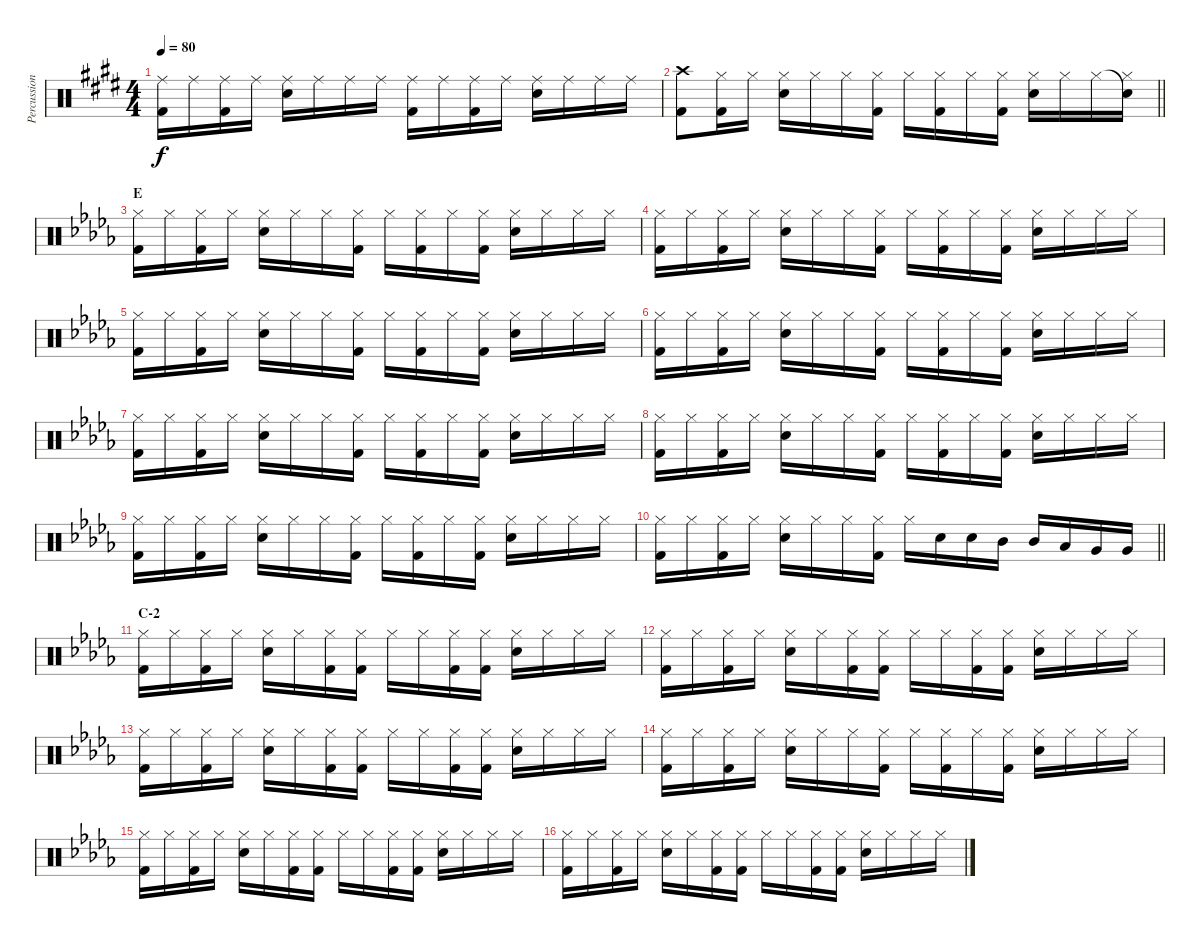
\track ("Percussion" "Percussion") {instrument percussion}
\staff {score}
\articulation defaults
\ts (4 4)
\tempo 80
\clef neutral
\ks e
("Ride (middle)" "Kick (hit) 2").16{dy f} "Ride (middle)".16 ("Ride (middle)" "Kick (hit) 2").16 "Ride (middle)".16 ("Ride (middle)" "Electric Snare (hit)").16 "Ride (middle)".16 "Ride (middle)".16 "Ride (middle)".16 ("Ride (middle)" "Kick (hit) 2").16 "Ride (middle)".16 ("Ride (middle)" "Kick (hit) 2").16 "Ride (middle)".16 ("Ride (middle)" "Electric Snare (hit)").16 "Ride (middle)".16 "Ride (middle)".16 "Ride (middle)".16 |
\barLineRight lightlight
("Crash high (hit)" "Kick (hit) 2").8 ("Hi-Hat (closed)" "Kick (hit) 2").16 "Hi-Hat (closed)".16 ("Hi-Hat (closed)" "Electric Snare (hit)").16 "Hi-Hat (closed)".16 "Hi-Hat (closed)".16 ("Hi-Hat (closed)" "Kick (hit) 2").16 "Hi-Hat (closed)".16 ("Hi-Hat (closed)" "Kick (hit) 2").16 "Hi-Hat (closed)".16 ("Hi-Hat (closed)" "Kick (hit) 2").16 ("Hi-Hat (closed)" "Electric Snare (hit)").16 "Hi-Hat (closed)".16 "Hi-Hat (closed)".16 ("Snare (hit)"{t} "Hi-Hat (closed)").16 |
\section ("" "E")
\ks db
("Hi-Hat (closed)" "Kick (hit) 2").16 "Hi-Hat (closed)".16 ("Hi-Hat (closed)" "Kick (hit) 2").16 "Hi-Hat (closed)".16 ("Hi-Hat (closed)" "Electric Snare (hit)").16 "Hi-Hat (closed)".16 "Hi-Hat (closed)".16 ("Hi-Hat (closed)" "Kick (hit) 2").16 "Hi-Hat (closed)".16 ("Hi-Hat (closed)" "Kick (hit) 2").16 "Hi-Hat (closed)".16 ("Hi-Hat (closed)" "Kick (hit) 2").16 ("Hi-Hat (closed)" "Electric Snare (hit)").16 "Hi-Hat (closed)".16 "Hi-Hat (closed)".16 "Hi-Hat (closed)".16 |
("Hi-Hat (closed)" "Kick (hit) 2").16 "Hi-Hat (closed)".16 ("Hi-Hat (closed)" "Kick (hit) 2").16 "Hi-Hat (closed)".16 ("Hi-Hat (closed)" "Electric Snare (hit)").16 "Hi-Hat (closed)".16 "Hi-Hat (closed)".16 ("Hi-Hat (closed)" "Kick (hit) 2").16 "Hi-Hat (closed)".16 ("Hi-Hat (closed)" "Kick (hit) 2").16 "Hi-Hat (closed)".16 ("Hi-Hat (closed)" "Kick (hit) 2").16 ("Hi-Hat (closed)" "Electric Snare (hit)").16 "Hi-Hat (closed)".16 "Hi-Hat (closed)".16 "Hi-Hat (closed)".16 |
("Hi-Hat (closed)" "Kick (hit) 2").16 "Hi-Hat (closed)".16 ("Hi-Hat (closed)" "Kick (hit) 2").16 "Hi-Hat (closed)".16 ("Hi-Hat (closed)" "Electric Snare (hit)").16 "Hi-Hat (closed)".16 "Hi-Hat (closed)".16 ("Hi-Hat (closed)" "Kick (hit) 2").16 "Hi-Hat (closed)".16 ("Hi-Hat (closed)" "Kick (hit) 2").16 "Hi-Hat (closed)".16 ("Hi-Hat (closed)" "Kick (hit) 2").16 ("Hi-Hat (closed)" "Electric Snare (hit)").16 "Hi-Hat (closed)".16 "Hi-Hat (closed)".16 "Hi-Hat (closed)".16 |
("Hi-Hat (closed)" "Kick (hit) 2").16 "Hi-Hat (closed)".16 ("Hi-Hat (closed)" "Kick (hit) 2").16 "Hi-Hat (closed)".16 ("Hi-Hat (closed)" "Electric Snare (hit)").16 "Hi-Hat (closed)".16 "Hi-Hat (closed)".16 ("Hi-Hat (closed)" "Kick (hit) 2").16 "Hi-Hat (closed)".16 ("Hi-Hat (closed)" "Kick (hit) 2").16 "Hi-Hat (closed)".16 ("Hi-Hat (closed)" "Kick (hit) 2").16 ("Hi-Hat (closed)" "Electric Snare (hit)").16 "Hi-Hat (closed)".16 "Hi-Hat (closed)".16 "Hi-Hat (closed)".16 |
("Hi-Hat (closed)" "Kick (hit) 2").16 "Hi-Hat (closed)".16 ("Hi-Hat (closed)" "Kick (hit) 2").16 "Hi-Hat (closed)".16 ("Hi-Hat (closed)" "Electric Snare (hit)").16 "Hi-Hat (closed)".16 "Hi-Hat (closed)".16 ("Hi-Hat (closed)" "Kick (hit) 2").16 "Hi-Hat (closed)".16 ("Hi-Hat (closed)" "Kick (hit) 2").16 "Hi-Hat (closed)".16 ("Hi-Hat (closed)" "Kick (hit) 2").16 ("Hi-Hat (closed)" "Electric Snare (hit)").16 "Hi-Hat (closed)".16 "Hi-Hat (closed)".16 "Hi-Hat (closed)".16 |
("Hi-Hat (closed)" "Kick (hit) 2").16 "Hi-Hat (closed)".16 ("Hi-Hat (closed)" "Kick (hit) 2").16 "Hi-Hat (closed)".16 ("Hi-Hat (closed)" "Electric Snare (hit)").16 "Hi-Hat (closed)".16 "Hi-Hat (closed)".16 ("Hi-Hat (closed)" "Kick (hit) 2").16 "Hi-Hat (closed)".16 ("Hi-Hat (closed)" "Kick (hit) 2").16 "Hi-Hat (closed)".16 ("Hi-Hat (closed)" "Kick (hit) 2").16 ("Hi-Hat (closed)" "Electric Snare (hit)").16 "Hi-Hat (closed)".16 "Hi-Hat (closed)".16 "Hi-Hat (closed)".16 |
("Hi-Hat (closed)" "Kick (hit) 2").16 "Hi-Hat (closed)".16 ("Hi-Hat (closed)" "Kick (hit) 2").16 "Hi-Hat (closed)".16 ("Hi-Hat (closed)" "Electric Snare (hit)").16 "Hi-Hat (closed)".16 "Hi-Hat (closed)".16 ("Hi-Hat (closed)" "Kick (hit) 2").16 "Hi-Hat (closed)".16 ("Hi-Hat (closed)" "Kick (hit) 2").16 "Hi-Hat (closed)".16 ("Hi-Hat (closed)" "Kick (hit) 2").16 ("Hi-Hat (closed)" "Electric Snare (hit)").16 "Hi-Hat (closed)".16 "Hi-Hat (closed)".16 "Hi-Hat (closed)".16 |
\barLineRight lightlight
("Hi-Hat (closed)" "Kick (hit) 2").16 "Hi-Hat (closed)".16 ("Hi-Hat (closed)" "Kick (hit) 2").16 "Hi-Hat (closed)".16 ("Hi-Hat (closed)" "Electric Snare (hit)").16 "Hi-Hat (closed)".16 "Hi-Hat (closed)".16 ("Hi-Hat (closed)" "Kick (hit) 2").16 "Hi-Hat (closed)".16 "Electric Snare (hit)".16 "Electric Snare (hit)".16 "Mid Tom (hit)".16 "Mid Tom (hit)".16 "Low Tom (hit)".16 "Very Low Tom (hit)".16 "Very Low Tom (hit)".16 |
\section ("" "C-2")
("Hi-Hat (closed)" "Kick (hit) 2").16 "Hi-Hat (closed)".16 ("Hi-Hat (closed)" "Kick (hit) 2").16 "Hi-Hat (closed)".16 ("Hi-Hat (closed)" "Electric Snare (hit)").16 "Hi-Hat (closed)".16 ("Hi-Hat (closed)" "Kick (hit) 2").16 ("Hi-Hat (closed)" "Kick (hit) 2").16 "Hi-Hat (closed)".16 "Hi-Hat (closed)".16 ("Hi-Hat (closed)" "Kick (hit) 2").16 ("Hi-Hat (closed)" "Kick (hit) 2").16 ("Hi-Hat (closed)" "Electric Snare (hit)").16 "Hi-Hat (closed)".16 "Hi-Hat (closed)".16 "Hi-Hat (closed)".16 |
("Hi-Hat (closed)" "Kick (hit) 2").16 "Hi-Hat (closed)".16 ("Hi-Hat (closed)" "Kick (hit) 2").16 "Hi-Hat (closed)".16 ("Hi-Hat (closed)" "Electric Snare (hit)").16 "Hi-Hat (closed)".16 ("Hi-Hat (closed)" "Kick (hit) 2").16 ("Hi-Hat (closed)" "Kick (hit) 2").16 "Hi-Hat (closed)".16 "Hi-Hat (closed)".16 ("Hi-Hat (closed)" "Kick (hit) 2").16 ("Hi-Hat (closed)" "Kick (hit) 2").16 ("Hi-Hat (closed)" "Electric Snare (hit)").16 "Hi-Hat (closed)".16 "Hi-Hat (closed)".16 "Hi-Hat (closed)".16 |
("Hi-Hat (closed)" "Kick (hit) 2").16 "Hi-Hat (closed)".16 ("Hi-Hat (closed)" "Kick (hit) 2").16 "Hi-Hat (closed)".16 ("Hi-Hat (closed)" "Electric Snare (hit)").16 "Hi-Hat (closed)".16 ("Hi-Hat (closed)" "Kick (hit) 2").16 ("Hi-Hat (closed)" "Kick (hit) 2").16 "Hi-Hat (closed)".16 "Hi-Hat (closed)".16 ("Hi-Hat (closed)" "Kick (hit) 2").16 ("Hi-Hat (closed)" "Kick (hit) 2").16 ("Hi-Hat (closed)" "Electric Snare (hit)").16 "Hi-Hat (closed)".16 "Hi-Hat (closed)".16 "Hi-Hat (closed)".16 |
("Hi-Hat (closed)" "Kick (hit) 2").16 "Hi-Hat (closed)".16 ("Hi-Hat (closed)" "Kick (hit) 2").16 "Hi-Hat (closed)".16 ("Hi-Hat (closed)" "Electric Snare (hit)").16 "Hi-Hat (closed)".16 "Hi-Hat (closed)".16 ("Hi-Hat (closed)" "Kick (hit) 2").16 "Hi-Hat (closed)".16 ("Hi-Hat (closed)" "Kick (hit) 2").16 "Hi-Hat (closed)".16 ("Hi-Hat (closed)" "Kick (hit) 2").16 ("Hi-Hat (closed)" "Electric Snare (hit)").16 "Hi-Hat (closed)".16 "Hi-Hat (closed)".16 "Hi-Hat (closed)".16 |
("Hi-Hat (closed)" "Kick (hit) 2").16 "Hi-Hat (closed)".16 ("Hi-Hat (closed)" "Kick (hit) 2").16 "Hi-Hat (closed)".16 ("Hi-Hat (closed)" "Electric Snare (hit)").16 "Hi-Hat (closed)".16 ("Hi-Hat (closed)" "Kick (hit) 2").16 ("Hi-Hat (closed)" "Kick (hit) 2").16 "Hi-Hat (closed)".16 "Hi-Hat (closed)".16 ("Hi-Hat (closed)" "Kick (hit) 2").16 ("Hi-Hat (closed)" "Kick (hit) 2").16 ("Hi-Hat (closed)" "Electric Snare (hit)").16 "Hi-Hat (closed)".16 "Hi-Hat (closed)".16 "Hi-Hat (closed)".16 |
("Hi-Hat (closed)" "Kick (hit) 2").16 "Hi-Hat (closed)".16 ("Hi-Hat (closed)" "Kick (hit) 2").16 "Hi-Hat (closed)".16 ("Hi-Hat (closed)" "Electric Snare (hit)").16 "Hi-Hat (closed)".16 ("Hi-Hat (closed)" "Kick (hit) 2").16 ("Hi-Hat (closed)" "Kick (hit) 2").16 "Hi-Hat (closed)".16 "Hi-Hat (closed)".16 ("Hi-Hat (closed)" "Kick (hit) 2").16 ("Hi-Hat (closed)" "Kick (hit) 2").16 ("Hi-Hat (closed)" "Electric Snare (hit)").16 "Hi-Hat (closed)".16 "Hi-Hat (closed)".16 "Hi-Hat (closed)".16
